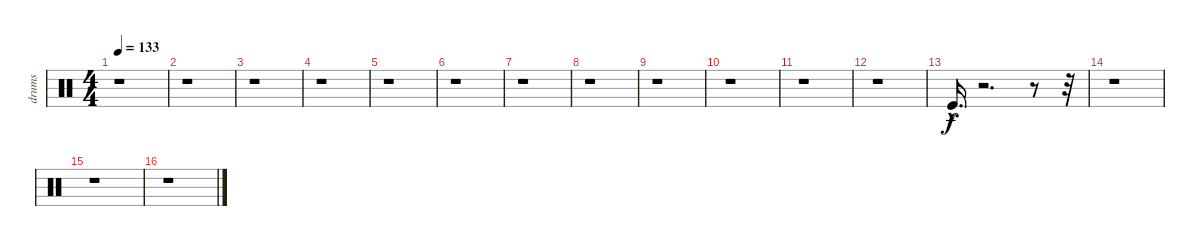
\track ("drums" "drums") {instrument percussion}
\staff {score}
\articulation defaults
\ts (4 4)
\tempo 133
\clef neutral
\ks c
r.1{dy f} |
r.1 |
r.1 |
r.1 |
r.1 |
r.1 |
r.1 |
r.1 |
r.1 |
r.1 |
r.1 |
r.1 |
"Kick (hit)"{hac}.16{d} r.2{d} r.8 r.32 |
r.1 |
r.1 |
r.1
